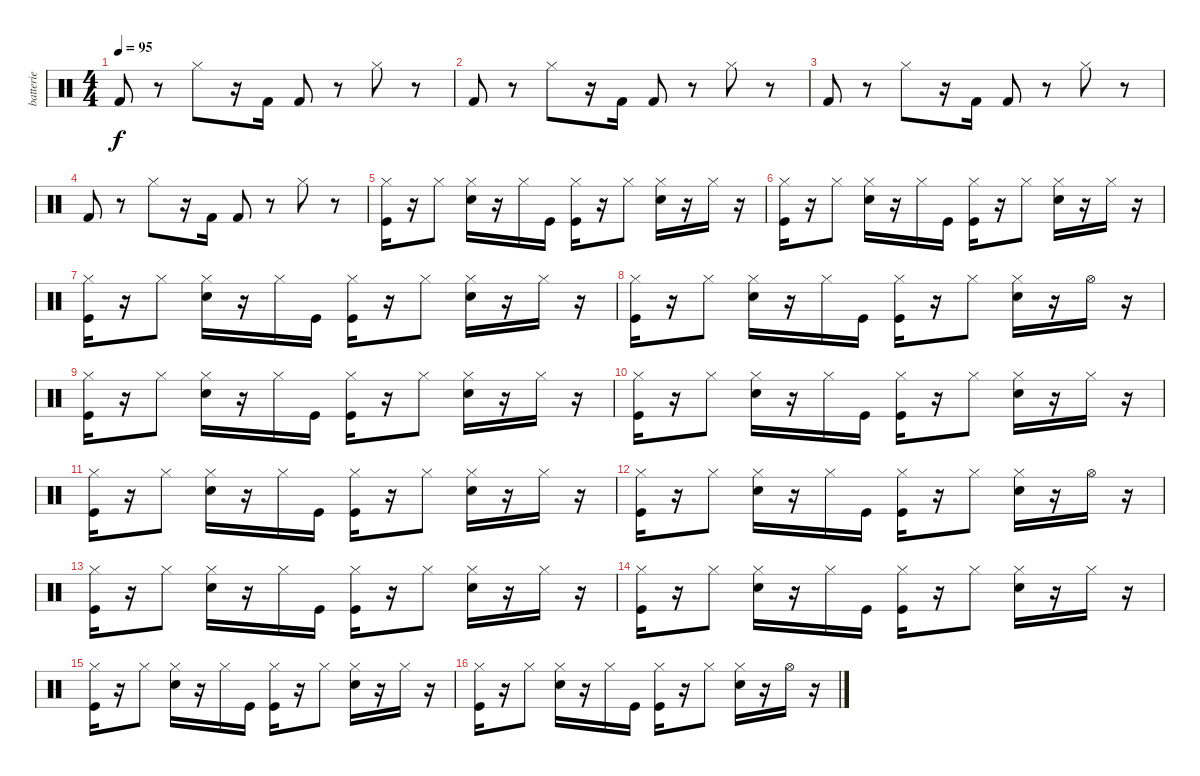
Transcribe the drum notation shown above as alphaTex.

\track ("batterie" "batterie") {instrument percussion}
\staff {score}
\articulation defaults
\ts (4 4)
\tempo 95
\clef neutral
\ks c "Kick (hit) 2".8{dy f}
r.8 "Hi-Hat (closed)".8 r.16 "Kick (hit) 2".16 "Kick (hit) 2".8 r.8 "Hi-Hat (closed)".8 r.8 |
"Kick (hit) 2".8 r.8 "Hi-Hat (closed)".8 r.16 "Kick (hit) 2".16 "Kick (hit) 2".8 r.8 "Hi-Hat (closed)".8 r.8 |
"Kick (hit) 2".8 r.8 "Hi-Hat (closed)".8 r.16 "Kick (hit) 2".16 "Kick (hit) 2".8 r.8 "Hi-Hat (closed)".8 r.8 |
"Kick (hit) 2".8 r.8 "Hi-Hat (closed)".8 r.16 "Kick (hit) 2".16 "Kick (hit) 2".8 r.8 "Hi-Hat (closed)".8 r.8 |
("Kick (hit)" "Hi-Hat (closed)").16 r.16 "Hi-Hat (closed)".8 ("Snare (hit) 2" "Hi-Hat (closed)").16 r.16 "Hi-Hat (closed)".16 "Kick (hit)".16 ("Kick (hit)" "Hi-Hat (closed)").16 r.16 "Hi-Hat (closed)".8 ("Snare (hit) 2" "Hi-Hat (closed)").16 r.16 "Hi-Hat (closed)".16 r.16 |
("Kick (hit)" "Hi-Hat (closed)").16 r.16 "Hi-Hat (closed)".8 ("Snare (hit) 2" "Hi-Hat (closed)").16 r.16 "Hi-Hat (closed)".16 "Kick (hit)".16 ("Kick (hit)" "Hi-Hat (closed)").16 r.16 "Hi-Hat (closed)".8 ("Snare (hit) 2" "Hi-Hat (closed)").16 r.16 "Hi-Hat (closed)".16 r.16 |
("Kick (hit)" "Hi-Hat (closed)").16 r.16 "Hi-Hat (closed)".8 ("Snare (hit) 2" "Hi-Hat (closed)").16 r.16 "Hi-Hat (closed)".16 "Kick (hit)".16 ("Kick (hit)" "Hi-Hat (closed)").16 r.16 "Hi-Hat (closed)".8 ("Snare (hit) 2" "Hi-Hat (closed)").16 r.16 "Hi-Hat (closed)".16 r.16 |
("Kick (hit)" "Hi-Hat (closed)").16 r.16 "Hi-Hat (closed)".8 ("Snare (hit) 2" "Hi-Hat (closed)").16 r.16 "Hi-Hat (closed)".16 "Kick (hit)".16 ("Kick (hit)" "Hi-Hat (closed)").16 r.16 "Hi-Hat (closed)".8 ("Snare (hit) 2" "Hi-Hat (closed)").16 r.16 "Hi-Hat (open)".16 r.16 |
("Kick (hit)" "Hi-Hat (closed)").16 r.16 "Hi-Hat (closed)".8 ("Snare (hit) 2" "Hi-Hat (closed)").16 r.16 "Hi-Hat (closed)".16 "Kick (hit)".16 ("Kick (hit)" "Hi-Hat (closed)").16 r.16 "Hi-Hat (closed)".8 ("Snare (hit) 2" "Hi-Hat (closed)").16 r.16 "Hi-Hat (closed)".16 r.16 |
("Kick (hit)" "Hi-Hat (closed)").16 r.16 "Hi-Hat (closed)".8 ("Snare (hit) 2" "Hi-Hat (closed)").16 r.16 "Hi-Hat (closed)".16 "Kick (hit)".16 ("Kick (hit)" "Hi-Hat (closed)").16 r.16 "Hi-Hat (closed)".8 ("Snare (hit) 2" "Hi-Hat (closed)").16 r.16 "Hi-Hat (closed)".16 r.16 |
("Kick (hit)" "Hi-Hat (closed)").16 r.16 "Hi-Hat (closed)".8 ("Snare (hit) 2" "Hi-Hat (closed)").16 r.16 "Hi-Hat (closed)".16 "Kick (hit)".16 ("Kick (hit)" "Hi-Hat (closed)").16 r.16 "Hi-Hat (closed)".8 ("Snare (hit) 2" "Hi-Hat (closed)").16 r.16 "Hi-Hat (closed)".16 r.16 |
("Kick (hit)" "Hi-Hat (closed)").16 r.16 "Hi-Hat (closed)".8 ("Snare (hit) 2" "Hi-Hat (closed)").16 r.16 "Hi-Hat (closed)".16 "Kick (hit)".16 ("Kick (hit)" "Hi-Hat (closed)").16 r.16 "Hi-Hat (closed)".8 ("Snare (hit) 2" "Hi-Hat (closed)").16 r.16 "Hi-Hat (open)".16 r.16 |
("Kick (hit)" "Hi-Hat (closed)").16 r.16 "Hi-Hat (closed)".8 ("Snare (hit) 2" "Hi-Hat (closed)").16 r.16 "Hi-Hat (closed)".16 "Kick (hit)".16 ("Kick (hit)" "Hi-Hat (closed)").16 r.16 "Hi-Hat (closed)".8 ("Snare (hit) 2" "Hi-Hat (closed)").16 r.16 "Hi-Hat (closed)".16 r.16 |
("Kick (hit)" "Hi-Hat (closed)").16 r.16 "Hi-Hat (closed)".8 ("Snare (hit) 2" "Hi-Hat (closed)").16 r.16 "Hi-Hat (closed)".16 "Kick (hit)".16 ("Kick (hit)" "Hi-Hat (closed)").16 r.16 "Hi-Hat (closed)".8 ("Snare (hit) 2" "Hi-Hat (closed)").16 r.16 "Hi-Hat (closed)".16 r.16 |
("Kick (hit)" "Hi-Hat (closed)").16 r.16 "Hi-Hat (closed)".8 ("Snare (hit) 2" "Hi-Hat (closed)").16 r.16 "Hi-Hat (closed)".16 "Kick (hit)".16 ("Kick (hit)" "Hi-Hat (closed)").16 r.16 "Hi-Hat (closed)".8 ("Snare (hit) 2" "Hi-Hat (closed)").16 r.16 "Hi-Hat (closed)".16 r.16 |
("Kick (hit)" "Hi-Hat (closed)").16 r.16 "Hi-Hat (closed)".8 ("Snare (hit) 2" "Hi-Hat (closed)").16 r.16 "Hi-Hat (closed)".16 "Kick (hit)".16 ("Kick (hit)" "Hi-Hat (closed)").16 r.16 "Hi-Hat (closed)".8 ("Snare (hit) 2" "Hi-Hat (closed)").16 r.16 "Hi-Hat (open)".16 r.16
